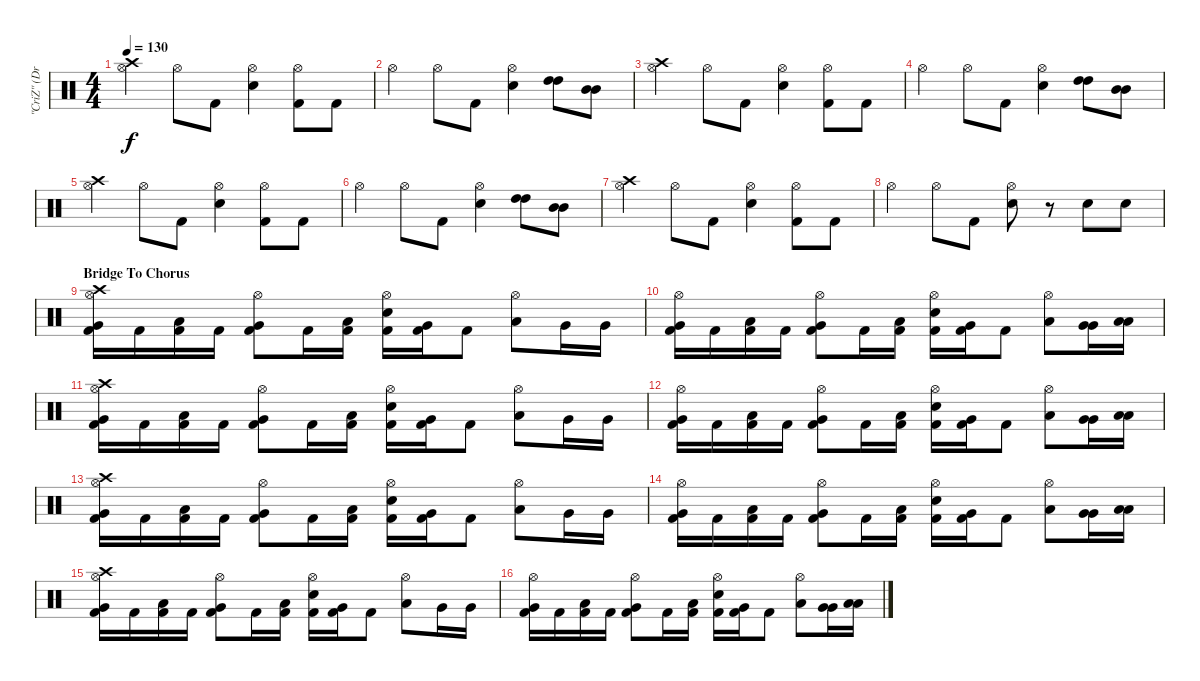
\track ("\"CriZ\" (Drums/Percussion)" "\"CriZ\" (Dr") {instrument percussion}
\staff {score}
\articulation defaults
\ts (4 4)
\tempo 130
\clef neutral
\ks c
("Crash high (hit)" "Hi-Hat (open)").4{dy f} "Hi-Hat (open)".8 "Kick (hit) 2".8 ("Hi-Hat (open)" "Snare (hit) 2").4 ("Hi-Hat (open)" "Kick (hit) 2").8 "Kick (hit) 2".8 |
"Hi-Hat (open)".4 "Hi-Hat (open)".8 "Kick (hit) 2".8 ("Hi-Hat (open)" "Snare (hit) 2").4 ("High Tom (hit)" "High Tom (hit)").8 ("Mid Tom (hit)" "Mid Tom (hit)").8 |
("Crash high (hit)" "Hi-Hat (open)").4 "Hi-Hat (open)".8 "Kick (hit) 2".8 ("Hi-Hat (open)" "Snare (hit) 2").4 ("Hi-Hat (open)" "Kick (hit) 2").8 "Kick (hit) 2".8 |
"Hi-Hat (open)".4 "Hi-Hat (open)".8 "Kick (hit) 2".8 ("Hi-Hat (open)" "Snare (hit) 2").4 ("High Tom (hit)" "High Tom (hit)").8 ("Mid Tom (hit)" "Mid Tom (hit)").8 |
("Crash high (hit)" "Hi-Hat (open)").4 "Hi-Hat (open)".8 "Kick (hit) 2".8 ("Hi-Hat (open)" "Snare (hit) 2").4 ("Hi-Hat (open)" "Kick (hit) 2").8 "Kick (hit) 2".8 |
"Hi-Hat (open)".4 "Hi-Hat (open)".8 "Kick (hit) 2".8 ("Hi-Hat (open)" "Snare (hit) 2").4 ("High Tom (hit)" "High Tom (hit)").8 ("Mid Tom (hit)" "Mid Tom (hit)").8 |
("Crash high (hit)" "Hi-Hat (open)").4 "Hi-Hat (open)".8 "Kick (hit) 2".8 ("Hi-Hat (open)" "Snare (hit) 2").4 ("Hi-Hat (open)" "Kick (hit) 2").8 "Kick (hit) 2".8 |
"Hi-Hat (open)".4 "Hi-Hat (open)".8 "Kick (hit) 2".8 ("Hi-Hat (open)" "Snare (hit) 2").8 r.8 "Snare (hit) 2".8 "Snare (hit) 2".8 |
\section ("" "Bridge To Chorus")
("Crash high (hit)" "Hi-Hat (open)" "Very Low Tom (hit)" "Kick (hit) 2").16{volume 15} "Kick (hit) 2".16 ("Low Tom (hit)" "Kick (hit) 2").16 "Kick (hit) 2".16 ("Hi-Hat (open)" "Very Low Tom (hit)" "Kick (hit) 2").8 "Kick (hit) 2".16 ("Low Tom (hit)" "Kick (hit) 2").16 ("Snare (hit) 2" "Hi-Hat (open)" "Kick (hit) 2").16 ("Very Low Tom (hit)" "Kick (hit) 2").16 "Kick (hit) 2".8 ("Hi-Hat (open)" "Low Tom (hit)").8 "Very Low Tom (hit)".16 "Very Low Tom (hit)".16 |
("Hi-Hat (open)" "Very Low Tom (hit)" "Kick (hit) 2").16 "Kick (hit) 2".16 ("Low Tom (hit)" "Kick (hit) 2").16 "Kick (hit) 2".16 ("Hi-Hat (open)" "Very Low Tom (hit)" "Kick (hit) 2").8 "Kick (hit) 2".16 ("Low Tom (hit)" "Kick (hit) 2").16 ("Snare (hit) 2" "Hi-Hat (open)" "Kick (hit) 2").16 ("Very Low Tom (hit)" "Kick (hit) 2").16 "Kick (hit) 2".8 ("Hi-Hat (open)" "Low Tom (hit)").8 ("Very Low Tom (hit)" "Very Low Tom (hit)").16 ("Low Tom (hit)" "Low Tom (hit)").16 |
("Crash high (hit)" "Hi-Hat (open)" "Very Low Tom (hit)" "Kick (hit) 2").16 "Kick (hit) 2".16 ("Low Tom (hit)" "Kick (hit) 2").16 "Kick (hit) 2".16 ("Hi-Hat (open)" "Very Low Tom (hit)" "Kick (hit) 2").8 "Kick (hit) 2".16 ("Low Tom (hit)" "Kick (hit) 2").16 ("Snare (hit) 2" "Hi-Hat (open)" "Kick (hit) 2").16 ("Very Low Tom (hit)" "Kick (hit) 2").16 "Kick (hit) 2".8 ("Hi-Hat (open)" "Low Tom (hit)").8 "Very Low Tom (hit)".16 "Very Low Tom (hit)".16 |
("Hi-Hat (open)" "Very Low Tom (hit)" "Kick (hit) 2").16 "Kick (hit) 2".16 ("Low Tom (hit)" "Kick (hit) 2").16 "Kick (hit) 2".16 ("Hi-Hat (open)" "Very Low Tom (hit)" "Kick (hit) 2").8 "Kick (hit) 2".16 ("Low Tom (hit)" "Kick (hit) 2").16 ("Snare (hit) 2" "Hi-Hat (open)" "Kick (hit) 2").16 ("Very Low Tom (hit)" "Kick (hit) 2").16 "Kick (hit) 2".8 ("Hi-Hat (open)" "Low Tom (hit)").8 ("Very Low Tom (hit)" "Very Low Tom (hit)").16 ("Low Tom (hit)" "Low Tom (hit)").16 |
("Crash high (hit)" "Hi-Hat (open)" "Very Low Tom (hit)" "Kick (hit) 2").16 "Kick (hit) 2".16 ("Low Tom (hit)" "Kick (hit) 2").16 "Kick (hit) 2".16 ("Hi-Hat (open)" "Very Low Tom (hit)" "Kick (hit) 2").8 "Kick (hit) 2".16 ("Low Tom (hit)" "Kick (hit) 2").16 ("Snare (hit) 2" "Hi-Hat (open)" "Kick (hit) 2").16 ("Very Low Tom (hit)" "Kick (hit) 2").16 "Kick (hit) 2".8 ("Hi-Hat (open)" "Low Tom (hit)").8 "Very Low Tom (hit)".16 "Very Low Tom (hit)".16 |
("Hi-Hat (open)" "Very Low Tom (hit)" "Kick (hit) 2").16 "Kick (hit) 2".16 ("Low Tom (hit)" "Kick (hit) 2").16 "Kick (hit) 2".16 ("Hi-Hat (open)" "Very Low Tom (hit)" "Kick (hit) 2").8 "Kick (hit) 2".16 ("Low Tom (hit)" "Kick (hit) 2").16 ("Snare (hit) 2" "Hi-Hat (open)" "Kick (hit) 2").16 ("Very Low Tom (hit)" "Kick (hit) 2").16 "Kick (hit) 2".8 ("Hi-Hat (open)" "Low Tom (hit)").8 ("Very Low Tom (hit)" "Very Low Tom (hit)").16 ("Low Tom (hit)" "Low Tom (hit)").16 |
("Crash high (hit)" "Hi-Hat (open)" "Very Low Tom (hit)" "Kick (hit) 2").16 "Kick (hit) 2".16 ("Low Tom (hit)" "Kick (hit) 2").16 "Kick (hit) 2".16 ("Hi-Hat (open)" "Very Low Tom (hit)" "Kick (hit) 2").8 "Kick (hit) 2".16 ("Low Tom (hit)" "Kick (hit) 2").16 ("Snare (hit) 2" "Hi-Hat (open)" "Kick (hit) 2").16 ("Very Low Tom (hit)" "Kick (hit) 2").16 "Kick (hit) 2".8 ("Hi-Hat (open)" "Low Tom (hit)").8 "Very Low Tom (hit)".16 "Very Low Tom (hit)".16 |
("Hi-Hat (open)" "Very Low Tom (hit)" "Kick (hit) 2").16 "Kick (hit) 2".16 ("Low Tom (hit)" "Kick (hit) 2").16 "Kick (hit) 2".16 ("Hi-Hat (open)" "Very Low Tom (hit)" "Kick (hit) 2").8 "Kick (hit) 2".16 ("Low Tom (hit)" "Kick (hit) 2").16 ("Snare (hit) 2" "Hi-Hat (open)" "Kick (hit) 2").16 ("Very Low Tom (hit)" "Kick (hit) 2").16 "Kick (hit) 2".8 ("Hi-Hat (open)" "Low Tom (hit)").8 ("Very Low Tom (hit)" "Very Low Tom (hit)").16 ("Low Tom (hit)" "Low Tom (hit)").16
